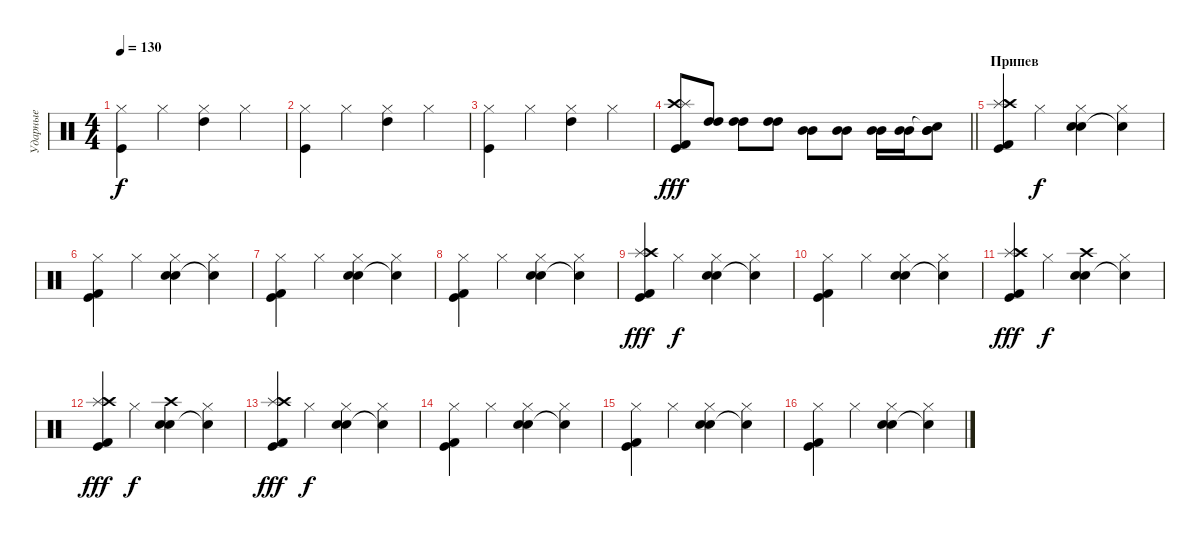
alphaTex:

\track ("Ударные" "Ударные") {instrument percussion}
\staff {score}
\articulation defaults
\ts (4 4)
\tempo 130
\clef neutral
\ks c
("Hi-Hat (closed)" "Kick (hit)").4{dy f} "Hi-Hat (closed)".4 ("Hi-Hat (closed)" "High Tom (hit)").4 "Hi-Hat (closed)".4 |
("Hi-Hat (closed)" "Kick (hit)").4 "Hi-Hat (closed)".4 ("Hi-Hat (closed)" "High Tom (hit)").4 "Hi-Hat (closed)".4 |
("Hi-Hat (closed)" "Kick (hit)").4 "Hi-Hat (closed)".4 ("Hi-Hat (closed)" "High Tom (hit)").4 "Hi-Hat (closed)".4 |
\barLineRight lightlight
("Crash high (hit)" "Splash (hit)" "Kick (hit)" "Kick (hit) 2").8{dy fff} ("High Tom (hit)" "High Tom (hit)").8 ("High Tom (hit)" "High Tom (hit)").8 ("High Tom (hit)" "High Tom (hit)").8 ("Mid Tom (hit)" "Mid Tom (hit)").8 ("Mid Tom (hit)" "Mid Tom (hit)").8 ("Mid Tom (hit)" "Mid Tom (hit)").16 ("Mid Tom (hit)" "Mid Tom (hit)").16 ("Snare (hit)"{t} "Mid Tom (hit)" "Mid Tom (hit)").8 |
\section ("" "Припев")
("Splash (hit)" "Crash high (hit)" "Kick (hit)" "Kick (hit) 2").4 "Hi-Hat (closed)".4{dy f} ("Hi-Hat (closed)" "Electric Snare (hit)" "Snare (hit) 2").4 ("Hi-Hat (closed)" "Snare (hit)"{t}).4 |
("Hi-Hat (closed)" "Kick (hit)" "Kick (hit) 2").4 "Hi-Hat (closed)".4 ("Hi-Hat (closed)" "Electric Snare (hit)" "Snare (hit) 2").4 ("Hi-Hat (closed)" "Snare (hit)"{t}).4 |
("Hi-Hat (closed)" "Kick (hit)" "Kick (hit) 2").4 "Hi-Hat (closed)".4 ("Hi-Hat (closed)" "Electric Snare (hit)" "Snare (hit) 2").4 ("Hi-Hat (closed)" "Snare (hit)"{t}).4 |
("Hi-Hat (closed)" "Kick (hit)" "Kick (hit) 2").4 "Hi-Hat (closed)".4 ("Hi-Hat (closed)" "Electric Snare (hit)" "Snare (hit) 2").4 ("Hi-Hat (closed)" "Snare (hit)"{t}).4 |
("Splash (hit)" "Crash high (hit)" "Kick (hit)" "Kick (hit) 2").4{dy fff} "Hi-Hat (closed)".4{dy f} ("Hi-Hat (closed)" "Electric Snare (hit)" "Snare (hit) 2").4 ("Hi-Hat (closed)" "Snare (hit)"{t}).4 |
("Hi-Hat (closed)" "Kick (hit)" "Kick (hit) 2").4 "Hi-Hat (closed)".4 ("Hi-Hat (closed)" "Electric Snare (hit)" "Snare (hit) 2").4 ("Hi-Hat (closed)" "Snare (hit)"{t}).4 |
("Splash (hit)" "Crash high (hit)" "Kick (hit)" "Kick (hit) 2").4{dy fff} "Hi-Hat (closed)".4{dy f} ("Crash high (hit)" "Electric Snare (hit)" "Snare (hit) 2").4 ("Hi-Hat (closed)" "Snare (hit)"{t}).4 |
("Splash (hit)" "Crash high (hit)" "Kick (hit)" "Kick (hit) 2").4{dy fff} "Hi-Hat (closed)".4{dy f} ("Crash high (hit)" "Electric Snare (hit)" "Snare (hit) 2").4 ("Hi-Hat (closed)" "Snare (hit)"{t}).4 |
("Splash (hit)" "Crash high (hit)" "Kick (hit)" "Kick (hit) 2").4{dy fff} "Hi-Hat (closed)".4{dy f} ("Hi-Hat (closed)" "Electric Snare (hit)" "Snare (hit) 2").4 ("Hi-Hat (closed)" "Snare (hit)"{t}).4 |
("Hi-Hat (closed)" "Kick (hit)" "Kick (hit) 2").4 "Hi-Hat (closed)".4 ("Hi-Hat (closed)" "Electric Snare (hit)" "Snare (hit) 2").4 ("Hi-Hat (closed)" "Snare (hit)"{t}).4 |
("Hi-Hat (closed)" "Kick (hit)" "Kick (hit) 2").4 "Hi-Hat (closed)".4 ("Hi-Hat (closed)" "Electric Snare (hit)" "Snare (hit) 2").4 ("Hi-Hat (closed)" "Snare (hit)"{t}).4 |
("Hi-Hat (closed)" "Kick (hit)" "Kick (hit) 2").4 "Hi-Hat (closed)".4 ("Hi-Hat (closed)" "Electric Snare (hit)" "Snare (hit) 2").4 ("Hi-Hat (closed)" "Snare (hit)"{t}).4
